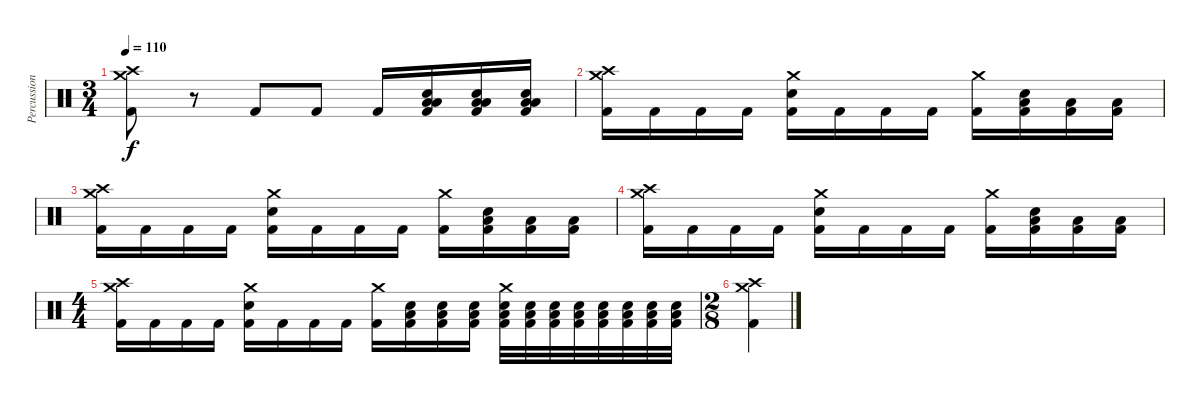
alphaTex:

\track ("Percussion" "Percussion") {instrument percussion}
\staff {score}
\articulation defaults
\ts (3 4)
\tempo 110
\clef neutral
\ks c
("Crash medium (hit)" "Crash high (hit)" "Kick (hit) 2").8{dy f} r.8 "Kick (hit) 2".8 "Kick (hit) 2".8 "Kick (hit) 2".16 ("Electric Snare (hit)" "Low Floor Tom (hit)" "Low Floor Tom (hit)" "Kick (hit) 2").16 ("Electric Snare (hit)" "Low Floor Tom (hit)" "Low Floor Tom (hit)" "Kick (hit) 2").16 ("Electric Snare (hit)" "Low Floor Tom (hit)" "Low Floor Tom (hit)" "Kick (hit) 2").16 |
("Crash medium (hit)" "Crash high (hit)" "Kick (hit) 2").16 "Kick (hit) 2".16 "Kick (hit) 2".16 "Kick (hit) 2".16 ("Crash medium (hit)" "Electric Snare (hit)" "Kick (hit) 2").16 "Kick (hit) 2".16 "Kick (hit) 2".16 "Kick (hit) 2".16 ("Crash medium (hit)" "Kick (hit) 2").16 ("Electric Snare (hit)" "Low Floor Tom (hit)" "Kick (hit) 2").16 ("Low Floor Tom (hit)" "Kick (hit) 2").16 ("Low Floor Tom (hit)" "Kick (hit) 2").16 |
("Crash medium (hit)" "Crash high (hit)" "Kick (hit) 2").16 "Kick (hit) 2".16 "Kick (hit) 2".16 "Kick (hit) 2".16 ("Crash medium (hit)" "Electric Snare (hit)" "Kick (hit) 2").16 "Kick (hit) 2".16 "Kick (hit) 2".16 "Kick (hit) 2".16 ("Crash medium (hit)" "Kick (hit) 2").16 ("Electric Snare (hit)" "Low Floor Tom (hit)" "Kick (hit) 2").16 ("Low Floor Tom (hit)" "Kick (hit) 2").16 ("Low Floor Tom (hit)" "Kick (hit) 2").16 |
("Crash medium (hit)" "Crash high (hit)" "Kick (hit) 2").16 "Kick (hit) 2".16 "Kick (hit) 2".16 "Kick (hit) 2".16 ("Crash medium (hit)" "Electric Snare (hit)" "Kick (hit) 2").16 "Kick (hit) 2".16 "Kick (hit) 2".16 "Kick (hit) 2".16 ("Crash medium (hit)" "Kick (hit) 2").16 ("Electric Snare (hit)" "Low Floor Tom (hit)" "Kick (hit) 2").16 ("Low Floor Tom (hit)" "Kick (hit) 2").16 ("Low Floor Tom (hit)" "Kick (hit) 2").16 |
\ts (4 4)
("Crash medium (hit)" "Crash high (hit)" "Kick (hit) 2").16 "Kick (hit) 2".16 "Kick (hit) 2".16 "Kick (hit) 2".16 ("Crash medium (hit)" "Electric Snare (hit)" "Kick (hit) 2").16 "Kick (hit) 2".16 "Kick (hit) 2".16 "Kick (hit) 2".16 ("Crash medium (hit)" "Kick (hit) 2").16 ("Electric Snare (hit)" "Low Floor Tom (hit)" "Kick (hit) 2").16 ("Electric Snare (hit)" "Low Floor Tom (hit)" "Kick (hit) 2").16 ("Electric Snare (hit)" "Low Floor Tom (hit)" "Kick (hit) 2").16 ("Crash medium (hit)" "Electric Snare (hit)" "Low Floor Tom (hit)" "Kick (hit) 2").32 ("Electric Snare (hit)" "Low Floor Tom (hit)" "Kick (hit) 2").32 ("Electric Snare (hit)" "Low Floor Tom (hit)" "Kick (hit) 2").32 ("Electric Snare (hit)" "Low Floor Tom (hit)" "Kick (hit) 2").32 ("Electric Snare (hit)" "Low Floor Tom (hit)" "Kick (hit) 2").32 ("Electric Snare (hit)" "Low Floor Tom (hit)" "Kick (hit) 2").32 ("Electric Snare (hit)" "Low Floor Tom (hit)" "Kick (hit) 2").32 ("Electric Snare (hit)" "Low Floor Tom (hit)" "Kick (hit) 2").32 |
\ts (2 8)
("Crash medium (hit)" "Crash high (hit)" "Kick (hit) 2").4
